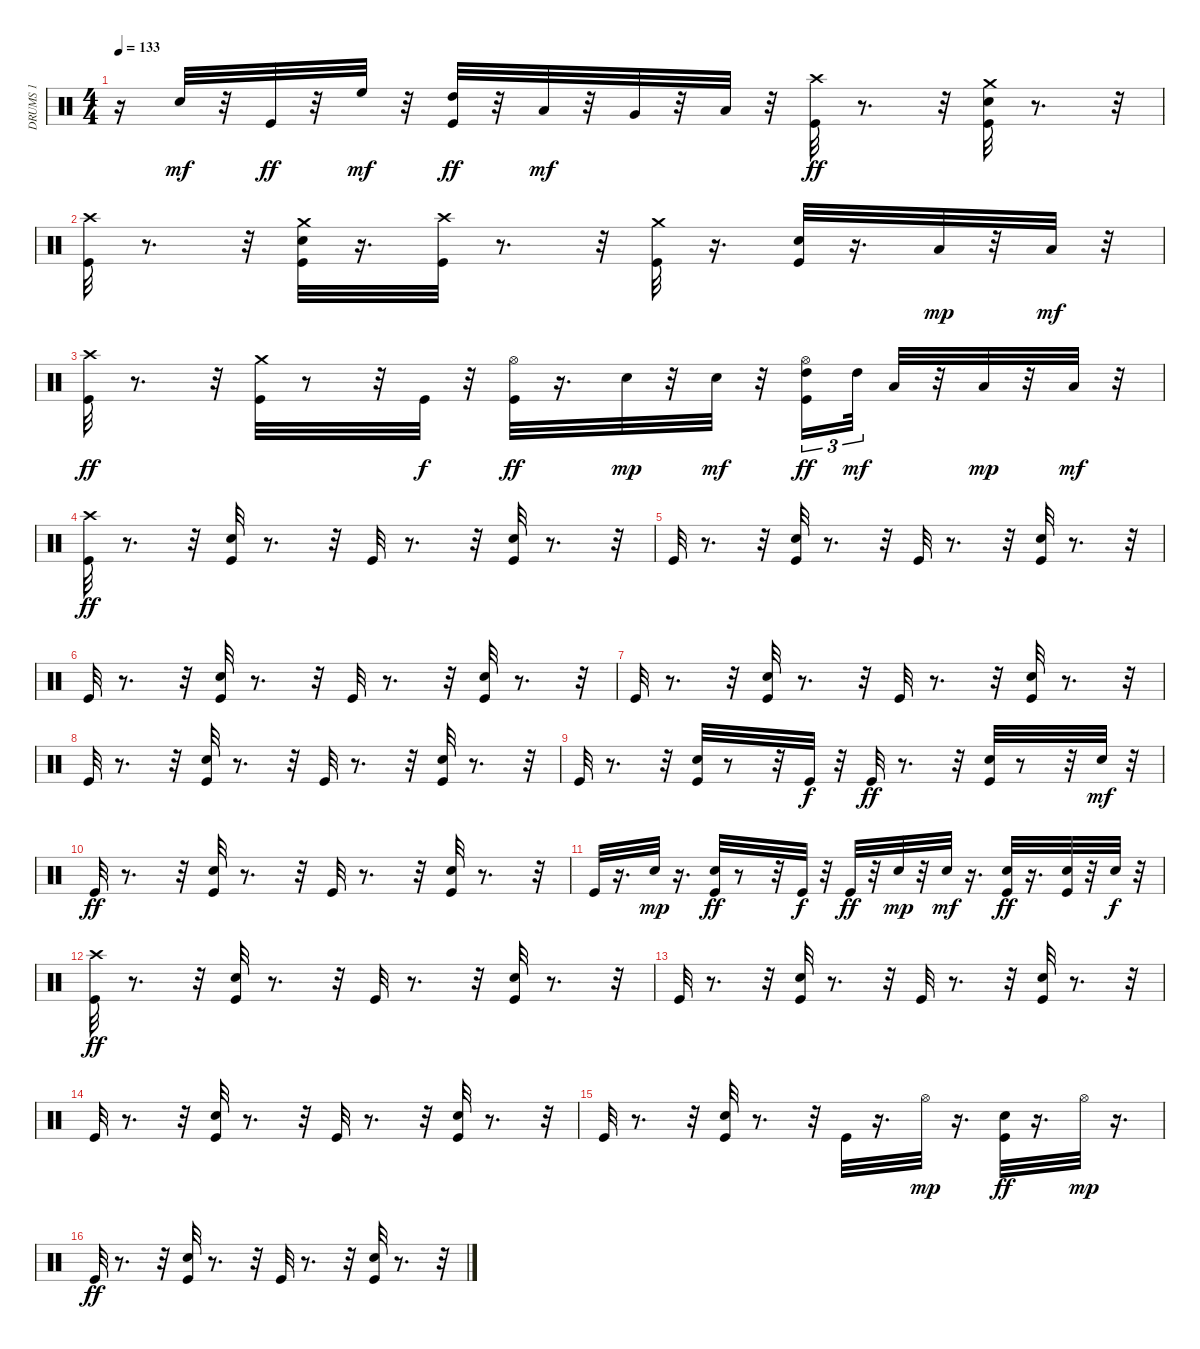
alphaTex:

\track ("DRUMS 1                             " "DRUMS 1   ") {instrument percussion}
\staff {score}
\articulation defaults
\ts (4 4)
\tempo 133
\clef neutral
\ks c
r.16{dy ff} "Electric Snare (hit)".32{dy mf} r.32 "Kick (hit)".32{dy ff} r.32 "High Floor Tom (hit)".32{dy mf} r.32 ("High Tom (hit)" "Kick (hit)").32{dy ff} r.32 "Low Tom (hit)".32{dy mf} r.32 "Very Low Tom (hit)".32 r.32 "Low Floor Tom (hit)".32 r.32 ("Crash high (hit)" "Kick (hit)").32{dy ff} r.8{d} r.32 ("Electric Snare (hit)" "Crash medium (hit)" "Kick (hit)").32 r.8{d} r.32 |
("Crash high (hit)" "Kick (hit)").32 r.8{d} r.32 ("Electric Snare (hit)" "Crash medium (hit)" "Kick (hit)").32 r.16{d} ("Crash high (hit)" "Kick (hit)").32 r.8{d} r.32 ("Crash medium (hit)" "Kick (hit)").32 r.16{d} ("Electric Snare (hit)" "Kick (hit)").32 r.16{d} "Low Floor Tom (hit)".32{dy mp} r.32 "Low Floor Tom (hit)".32{dy mf} r.32 |
("Crash high (hit)" "Kick (hit)").32{dy ff} r.8{d} r.32 ("Crash medium (hit)" "Kick (hit)").32 r.8 r.32 "Kick (hit)".32{dy f} r.32 ("Hi-Hat (open)" "Kick (hit)").32{dy ff} r.16{d} "Electric Snare (hit)".32{dy mp} r.32 "Electric Snare (hit)".32{dy mf} r.32 ("High Tom (hit)" "Hi-Hat (open)" "Kick (hit)").16{tu (3 2) dy ff} "High Tom (hit)".32{tu (3 2) dy mf} "Low Tom (hit)".32 r.32 "Low Floor Tom (hit)".32{dy mp} r.32 "Low Floor Tom (hit)".32{dy mf} r.32 |
("Crash high (hit)" "Kick (hit)").32{dy ff} r.8{d} r.32 ("Electric Snare (hit)" "Kick (hit)").32 r.8{d} r.32 "Kick (hit)".32 r.8{d} r.32 ("Electric Snare (hit)" "Kick (hit)").32 r.8{d} r.32 |
"Kick (hit)".32 r.8{d} r.32 ("Electric Snare (hit)" "Kick (hit)").32 r.8{d} r.32 "Kick (hit)".32 r.8{d} r.32 ("Electric Snare (hit)" "Kick (hit)").32 r.8{d} r.32 |
"Kick (hit)".32 r.8{d} r.32 ("Electric Snare (hit)" "Kick (hit)").32 r.8{d} r.32 "Kick (hit)".32 r.8{d} r.32 ("Electric Snare (hit)" "Kick (hit)").32 r.8{d} r.32 |
"Kick (hit)".32 r.8{d} r.32 ("Electric Snare (hit)" "Kick (hit)").32 r.8{d} r.32 "Kick (hit)".32 r.8{d} r.32 ("Electric Snare (hit)" "Kick (hit)").32 r.8{d} r.32 |
"Kick (hit)".32 r.8{d} r.32 ("Electric Snare (hit)" "Kick (hit)").32 r.8{d} r.32 "Kick (hit)".32 r.8{d} r.32 ("Electric Snare (hit)" "Kick (hit)").32 r.8{d} r.32 |
"Kick (hit)".32 r.8{d} r.32 ("Electric Snare (hit)" "Kick (hit)").32 r.8 r.32 "Kick (hit)".32{dy f} r.32 "Kick (hit)".32{dy ff} r.8{d} r.32 ("Electric Snare (hit)" "Kick (hit)").32 r.8 r.32 "Electric Snare (hit)".32{dy mf} r.32 |
"Kick (hit)".32{dy ff} r.8{d} r.32 ("Electric Snare (hit)" "Kick (hit)").32 r.8{d} r.32 "Kick (hit)".32 r.8{d} r.32 ("Electric Snare (hit)" "Kick (hit)").32 r.8{d} r.32 |
"Kick (hit)".32 r.16{d} "Electric Snare (hit)".32{dy mp} r.16{d} ("Electric Snare (hit)" "Kick (hit)").32{dy ff} r.8 r.32 "Kick (hit)".32{dy f} r.32 "Kick (hit)".32{dy ff} r.32 "Electric Snare (hit)".32{dy mp} r.32 "Electric Snare (hit)".32{dy mf} r.16{d} ("Electric Snare (hit)" "Kick (hit)").32{dy ff} r.16{d} ("Electric Snare (hit)" "Kick (hit)").32 r.32 "Electric Snare (hit)".32{dy f} r.32 |
("Crash high (hit)" "Kick (hit)").32{dy ff} r.8{d} r.32 ("Electric Snare (hit)" "Kick (hit)").32 r.8{d} r.32 "Kick (hit)".32 r.8{d} r.32 ("Electric Snare (hit)" "Kick (hit)").32 r.8{d} r.32 |
"Kick (hit)".32 r.8{d} r.32 ("Electric Snare (hit)" "Kick (hit)").32 r.8{d} r.32 "Kick (hit)".32 r.8{d} r.32 ("Electric Snare (hit)" "Kick (hit)").32 r.8{d} r.32 |
"Kick (hit)".32 r.8{d} r.32 ("Electric Snare (hit)" "Kick (hit)").32 r.8{d} r.32 "Kick (hit)".32 r.8{d} r.32 ("Electric Snare (hit)" "Kick (hit)").32 r.8{d} r.32 |
"Kick (hit)".32 r.8{d} r.32 ("Electric Snare (hit)" "Kick (hit)").32 r.8{d} r.32 "Kick (hit)".32 r.16{d} "Hi-Hat (open)".32{dy mp} r.16{d} ("Electric Snare (hit)" "Kick (hit)").32{dy ff} r.16{d} "Hi-Hat (open)".32{dy mp} r.16{d} |
"Kick (hit)".32{dy ff} r.8{d} r.32 ("Electric Snare (hit)" "Kick (hit)").32 r.8{d} r.32 "Kick (hit)".32 r.8{d} r.32 ("Electric Snare (hit)" "Kick (hit)").32 r.8{d} r.32
